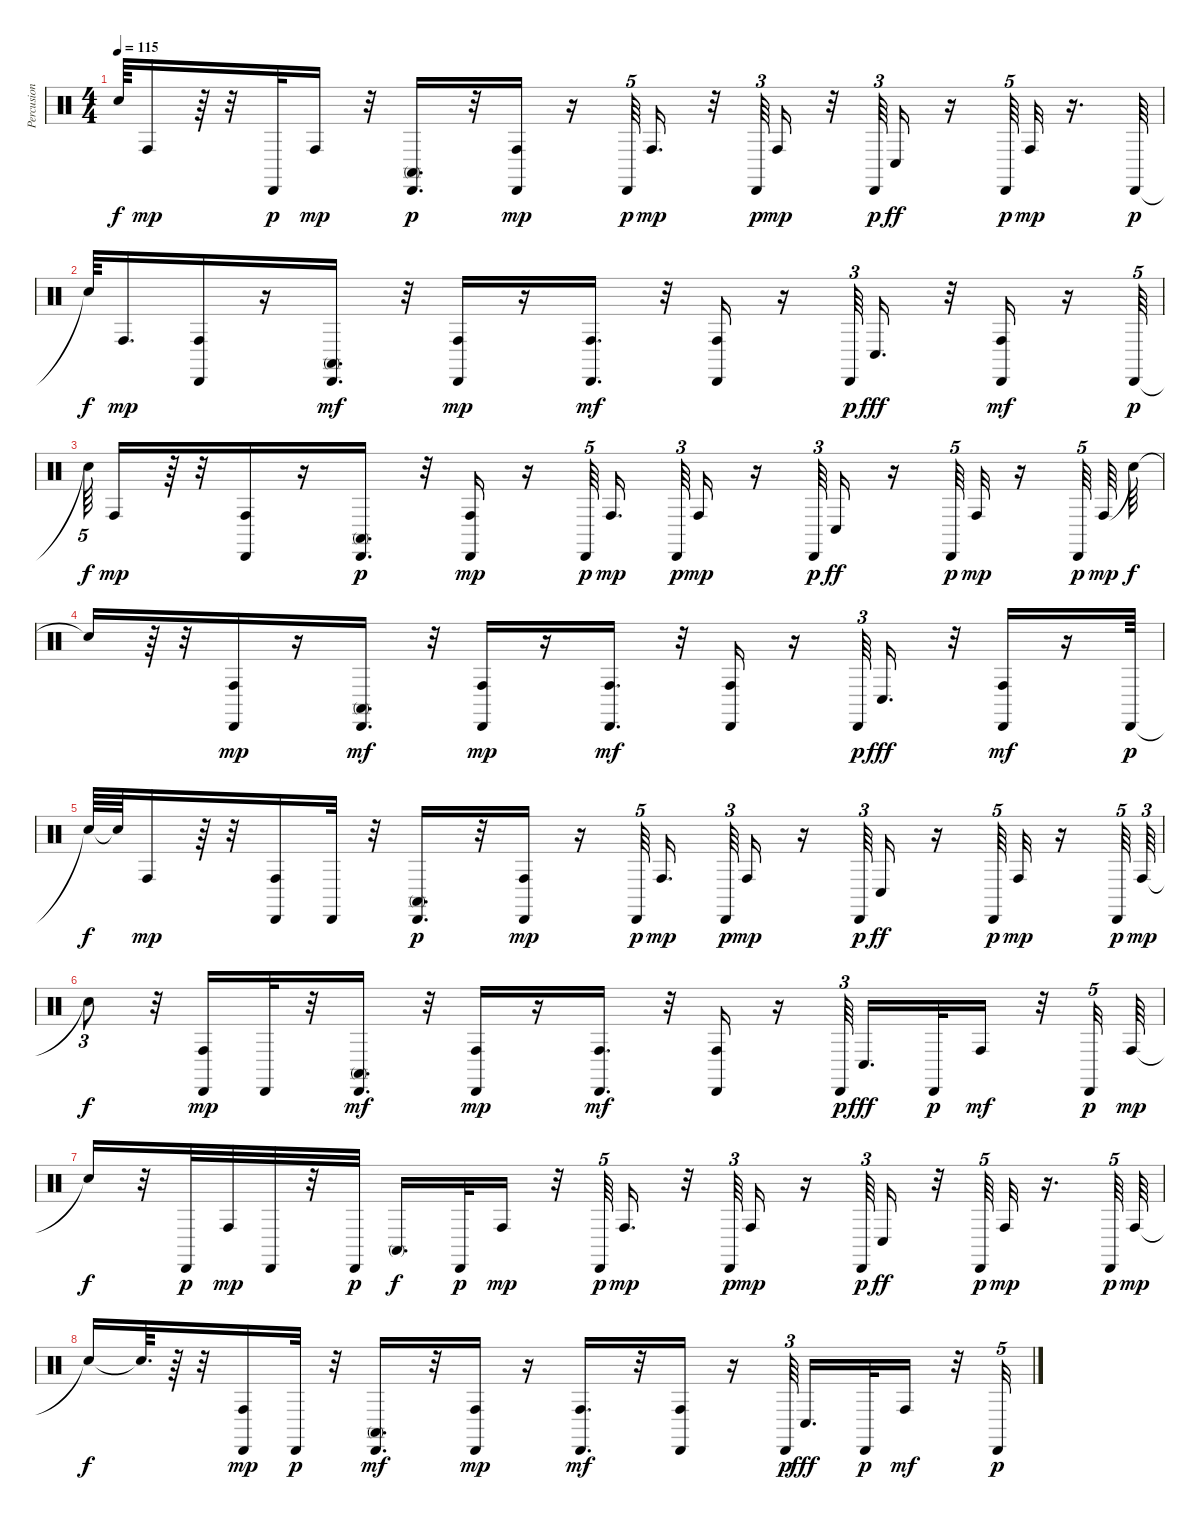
\track ("Percusion" "Percusion") {instrument percussion}
\staff {score}
\articulation defaults
\ts (4 4)
\tempo 115
\clef neutral
\ks c "Snare (hit)"{t}.64{dy f} "Conga high (hit)".16{dy mp}
r.64 r.32 "Cabasa (hit)".32{dy p} "Conga high (hit)".16{dy mp} r.32 ("Cabasa (hit)" "Conga high (mute)").16{d dy p} r.32 ("Cabasa (hit)" "Conga high (hit)").16{dy mp} r.16 "Cabasa (hit)".64{tu (5 4) dy p} "Conga high (hit)".16{d dy mp} r.32 "Cabasa (hit)".64{tu (3 2) dy p} "Conga high (hit)".16{dy mp} r.32 "Cabasa (hit)".64{tu (3 2) dy p} "Conga low (hit)".16{dy ff} r.16 "Cabasa (hit)".64{tu (5 4) dy p} "Conga high (hit)".32{dy mp} r.16{d} "Cabasa (hit)".64{dy p} |
"Snare (hit)"{t}.64{dy f} "Conga high (hit)".16{d dy mp} ("Cabasa (hit)" "Conga high (hit)").16 r.16 ("Cabasa (hit)" "Conga high (mute)").16{d dy mf} r.32 ("Cabasa (hit)" "Conga high (hit)").16{dy mp} r.16 ("Cabasa (hit)" "Conga high (hit)").16{d dy mf} r.32 ("Cabasa (hit)" "Conga high (hit)").16 r.16 "Cabasa (hit)".64{tu (3 2) dy p} "Conga low (hit)".16{d dy fff} r.32 ("Cabasa (hit)" "Conga high (hit)").16{dy mf} r.16 "Cabasa (hit)".64{tu (5 4) dy p} |
"Snare (hit)"{t}.64{tu (5 4) dy f} "Conga high (hit)".16{dy mp} r.64 r.32 ("Cabasa (hit)" "Conga high (hit)").16 r.16 ("Cabasa (hit)" "Conga high (mute)").16{d dy p} r.32 ("Cabasa (hit)" "Conga high (hit)").16{dy mp} r.16 "Cabasa (hit)".64{tu (5 4) dy p} "Conga high (hit)".16{d dy mp beam splitsecondary} "Cabasa (hit)".64{tu (3 2) dy p} "Conga high (hit)".16{dy mp} r.16 "Cabasa (hit)".64{tu (3 2) dy p} "Conga low (hit)".16{dy ff} r.16 "Cabasa (hit)".64{tu (5 4) dy p} "Conga high (hit)".32{dy mp} r.16 "Cabasa (hit)".64{tu (5 4) dy p} "Conga high (hit)".64{dy mp} "Snare (hit)"{t}.64{dy f} |
"Snare (hit)"{t}.16 r.64 r.32 ("Cabasa (hit)" "Conga high (hit)").16{dy mp} r.16 ("Cabasa (hit)" "Conga high (mute)").16{d dy mf} r.32 ("Cabasa (hit)" "Conga high (hit)").16{dy mp} r.16 ("Cabasa (hit)" "Conga high (hit)").16{d dy mf} r.32 ("Cabasa (hit)" "Conga high (hit)").16 r.16 "Cabasa (hit)".64{tu (3 2) dy p} "Conga low (hit)".16{d dy fff} r.32 ("Cabasa (hit)" "Conga high (hit)").16{dy mf} r.16 "Cabasa (hit)".64{dy p} |
"Snare (hit)"{t}.64{dy f} "Snare (hit)"{t}.64 "Conga high (hit)".16{dy mp} r.64 r.32 ("Cabasa (hit)" "Conga high (hit)").16 "Cabasa (hit)".32 r.32 ("Cabasa (hit)" "Conga high (mute)").16{d dy p} r.32 ("Cabasa (hit)" "Conga high (hit)").16{dy mp} r.16 "Cabasa (hit)".64{tu (5 4) dy p beam splitsecondary} "Conga high (hit)".16{d dy mp beam splitsecondary} "Cabasa (hit)".64{tu (3 2) dy p} "Conga high (hit)".16{dy mp} r.16 "Cabasa (hit)".64{tu (3 2) dy p} "Conga low (hit)".16{dy ff} r.16 "Cabasa (hit)".64{tu (5 4) dy p} "Conga high (hit)".32{dy mp} r.16 "Cabasa (hit)".64{tu (5 4) dy p} "Conga high (hit)".64{tu (3 2) dy mp} |
"Snare (hit)"{t}.8{tu (3 2) dy f} r.32 ("Cabasa (hit)" "Conga high (hit)").16{dy mp} "Cabasa (hit)".32 r.32 ("Cabasa (hit)" "Conga high (mute)").16{d dy mf} r.32 ("Cabasa (hit)" "Conga high (hit)").16{dy mp} r.16 ("Cabasa (hit)" "Conga high (hit)").16{d dy mf} r.32 ("Cabasa (hit)" "Conga high (hit)").16 r.16 "Cabasa (hit)".64{tu (3 2) dy p} "Conga low (hit)".16{d dy fff} "Cabasa (hit)".32{dy p} "Conga high (hit)".16{dy mf} r.32 "Cabasa (hit)".32{tu (5 4) dy p} "Conga high (hit)".64{dy mp} |
"Snare (hit)"{t}.16{dy f} r.32 "Cabasa (hit)".32{dy p} "Conga high (hit)".32{dy mp} "Cabasa (hit)".32 r.32 "Cabasa (hit)".32{dy p} "Conga high (mute)".16{d dy f} "Cabasa (hit)".32{dy p} "Conga high (hit)".16{dy mp} r.32 "Cabasa (hit)".64{tu (5 4) dy p} "Conga high (hit)".16{d dy mp} r.32 "Cabasa (hit)".64{tu (3 2) dy p} "Conga high (hit)".16{dy mp} r.16 "Cabasa (hit)".64{tu (3 2) dy p} "Conga low (hit)".16{dy ff} r.32 "Cabasa (hit)".64{tu (5 4) dy p} "Conga high (hit)".32{dy mp} r.16{d} "Cabasa (hit)".64{tu (5 4) dy p} "Conga high (hit)".64{dy mp} |
"Snare (hit)"{t}.16{dy f} "Snare (hit)"{t}.64{d} r.64 r.32 ("Cabasa (hit)" "Conga high (hit)").16{dy mp} "Cabasa (hit)".32{dy p} r.32 ("Cabasa (hit)" "Conga high (mute)").16{d dy mf} r.32 ("Cabasa (hit)" "Conga high (hit)").16{dy mp} r.16 ("Cabasa (hit)" "Conga high (hit)").16{d dy mf} r.32 ("Cabasa (hit)" "Conga high (hit)").16 r.16 "Cabasa (hit)".64{tu (3 2) dy p beam splitsecondary} "Conga low (hit)".16{d dy fff} "Cabasa (hit)".32{dy p} "Conga high (hit)".16{dy mf} r.32 "Cabasa (hit)".32{tu (5 4) dy p}
